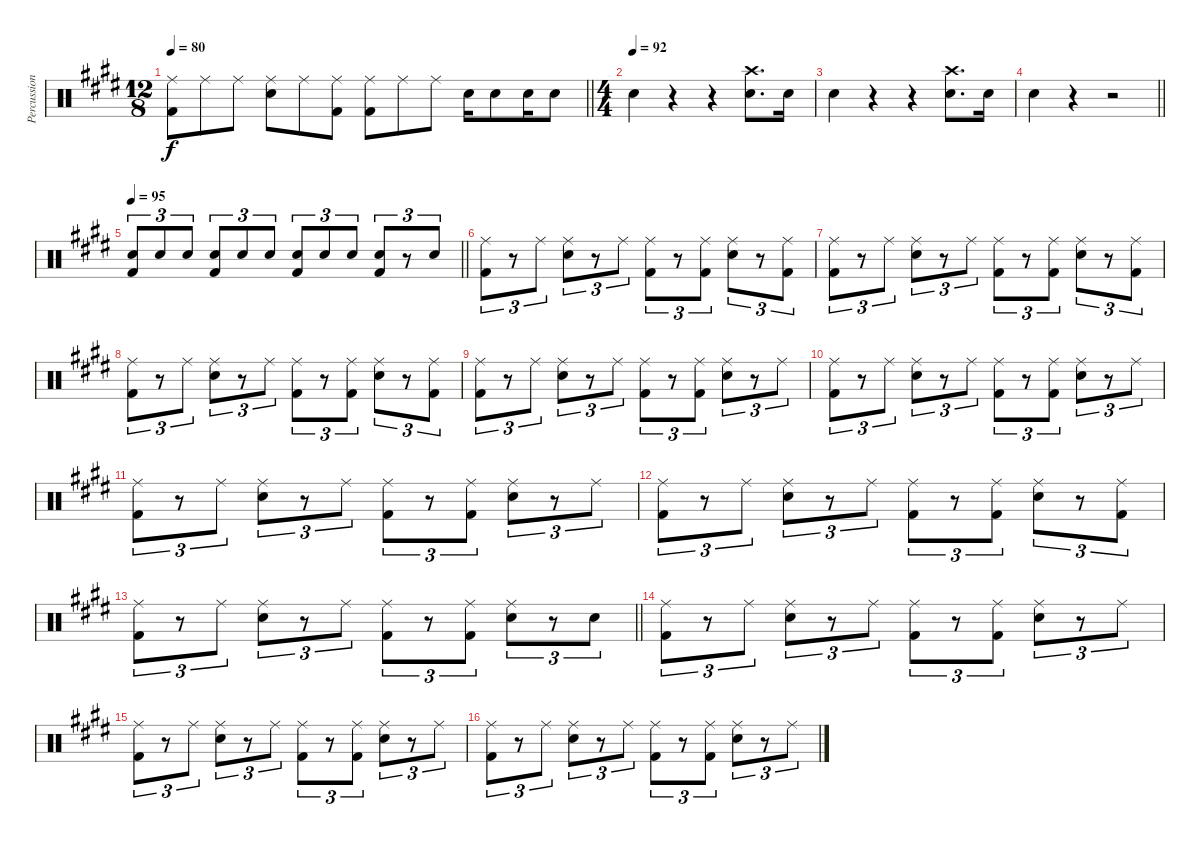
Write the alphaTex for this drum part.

\track ("Percussion" "Percussion") {instrument percussion}
\staff {score}
\articulation defaults
\ts (12 8)
\tempo 80
\clef neutral
\barLineRight lightlight
\ks e
("Ride (middle)" "Kick (hit) 2").8{dy f} "Ride (middle)".8 "Ride (middle)".8 ("Ride (middle)" "Snare (hit) 2").8 "Ride (middle)".8 ("Ride (middle)" "Kick (hit) 2").8 ("Ride (middle)" "Kick (hit) 2").8 "Ride (middle)".8 "Ride (middle)".8 "Snare (hit) 2".16 "Snare (hit) 2".8 "Snare (hit) 2".16 "Snare (hit) 2".8 |
\ts (4 4)
\tempo (92)
"Snare (hit) 2".4 r.4 r.4 ("Crash high (hit)" "Snare (hit) 2").8{d} "Snare (hit) 2".16 |
"Snare (hit) 2".4 r.4 r.4 ("Crash high (hit)" "Snare (hit) 2").8{d} "Snare (hit) 2".16 |
\barLineRight lightlight "Snare (hit) 2".4
r.4 r.2 |
\tempo 95
\barLineRight lightlight
("Snare (hit) 2" "Kick (hit) 2").8{tu (3 2)} "Snare (hit) 2".8{tu (3 2)} "Snare (hit) 2".8{tu (3 2)} ("Snare (hit) 2" "Kick (hit) 2").8{tu (3 2)} "Snare (hit) 2".8{tu (3 2)} "Snare (hit) 2".8{tu (3 2)} ("Snare (hit) 2" "Kick (hit) 2").8{tu (3 2)} "Snare (hit) 2".8{tu (3 2)} "Snare (hit) 2".8{tu (3 2)} ("Snare (hit) 2" "Kick (hit) 2").8{tu (3 2)} r.8{tu (3 2)} "Snare (hit) 2".8{tu (3 2)} |
("Ride (middle)" "Kick (hit) 2").8{tu (3 2)} r.8{tu (3 2)} "Ride (middle)".8{tu (3 2)} ("Ride (middle)" "Snare (hit) 2").8{tu (3 2)} r.8{tu (3 2)} "Ride (middle)".8{tu (3 2)} ("Ride (middle)" "Kick (hit) 2").8{tu (3 2)} r.8{tu (3 2)} ("Ride (middle)" "Kick (hit) 2").8{tu (3 2)} ("Ride (middle)" "Snare (hit) 2").8{tu (3 2)} r.8{tu (3 2)} ("Ride (middle)" "Kick (hit) 2").8{tu (3 2)} |
("Ride (middle)" "Kick (hit) 2").8{tu (3 2)} r.8{tu (3 2)} "Ride (middle)".8{tu (3 2)} ("Ride (middle)" "Snare (hit) 2").8{tu (3 2)} r.8{tu (3 2)} "Ride (middle)".8{tu (3 2)} ("Ride (middle)" "Kick (hit) 2").8{tu (3 2)} r.8{tu (3 2)} ("Ride (middle)" "Kick (hit) 2").8{tu (3 2)} ("Ride (middle)" "Snare (hit) 2").8{tu (3 2)} r.8{tu (3 2)} ("Ride (middle)" "Kick (hit) 2").8{tu (3 2)} |
("Ride (middle)" "Kick (hit) 2").8{tu (3 2)} r.8{tu (3 2)} "Ride (middle)".8{tu (3 2)} ("Ride (middle)" "Snare (hit) 2").8{tu (3 2)} r.8{tu (3 2)} "Ride (middle)".8{tu (3 2)} ("Ride (middle)" "Kick (hit) 2").8{tu (3 2)} r.8{tu (3 2)} ("Ride (middle)" "Kick (hit) 2").8{tu (3 2)} ("Ride (middle)" "Snare (hit) 2").8{tu (3 2)} r.8{tu (3 2)} ("Ride (middle)" "Kick (hit) 2").8{tu (3 2)} |
("Ride (middle)" "Kick (hit) 2").8{tu (3 2)} r.8{tu (3 2)} "Ride (middle)".8{tu (3 2)} ("Ride (middle)" "Snare (hit) 2").8{tu (3 2)} r.8{tu (3 2)} "Ride (middle)".8{tu (3 2)} ("Ride (middle)" "Kick (hit) 2").8{tu (3 2)} r.8{tu (3 2)} ("Ride (middle)" "Kick (hit) 2").8{tu (3 2)} ("Ride (middle)" "Snare (hit) 2").8{tu (3 2)} r.8{tu (3 2)} "Ride (middle)".8{tu (3 2)} |
("Ride (middle)" "Kick (hit) 2").8{tu (3 2)} r.8{tu (3 2)} "Ride (middle)".8{tu (3 2)} ("Ride (middle)" "Snare (hit) 2").8{tu (3 2)} r.8{tu (3 2)} "Ride (middle)".8{tu (3 2)} ("Ride (middle)" "Kick (hit) 2").8{tu (3 2)} r.8{tu (3 2)} ("Ride (middle)" "Kick (hit) 2").8{tu (3 2)} ("Ride (middle)" "Snare (hit) 2").8{tu (3 2)} r.8{tu (3 2)} "Ride (middle)".8{tu (3 2)} |
("Ride (middle)" "Kick (hit) 2").8{tu (3 2)} r.8{tu (3 2)} "Ride (middle)".8{tu (3 2)} ("Ride (middle)" "Snare (hit) 2").8{tu (3 2)} r.8{tu (3 2)} "Ride (middle)".8{tu (3 2)} ("Ride (middle)" "Kick (hit) 2").8{tu (3 2)} r.8{tu (3 2)} ("Ride (middle)" "Kick (hit) 2").8{tu (3 2)} ("Ride (middle)" "Snare (hit) 2").8{tu (3 2)} r.8{tu (3 2)} "Ride (middle)".8{tu (3 2)} |
("Ride (middle)" "Kick (hit) 2").8{tu (3 2)} r.8{tu (3 2)} "Ride (middle)".8{tu (3 2)} ("Ride (middle)" "Snare (hit) 2").8{tu (3 2)} r.8{tu (3 2)} "Ride (middle)".8{tu (3 2)} ("Ride (middle)" "Kick (hit) 2").8{tu (3 2)} r.8{tu (3 2)} ("Ride (middle)" "Kick (hit) 2").8{tu (3 2)} ("Ride (middle)" "Snare (hit) 2").8{tu (3 2)} r.8{tu (3 2)} ("Ride (middle)" "Kick (hit) 2").8{tu (3 2)} |
\barLineRight lightlight
("Ride (middle)" "Kick (hit) 2").8{tu (3 2)} r.8{tu (3 2)} "Ride (middle)".8{tu (3 2)} ("Ride (middle)" "Snare (hit) 2").8{tu (3 2)} r.8{tu (3 2)} "Ride (middle)".8{tu (3 2)} ("Ride (middle)" "Kick (hit) 2").8{tu (3 2)} r.8{tu (3 2)} ("Ride (middle)" "Kick (hit) 2").8{tu (3 2)} ("Ride (middle)" "Snare (hit) 2").8{tu (3 2)} r.8{tu (3 2)} "Snare (hit) 2".8{tu (3 2)} |
("Ride (middle)" "Kick (hit) 2").8{tu (3 2)} r.8{tu (3 2)} "Ride (middle)".8{tu (3 2)} ("Ride (middle)" "Snare (hit) 2").8{tu (3 2)} r.8{tu (3 2)} "Ride (middle)".8{tu (3 2)} ("Ride (middle)" "Kick (hit) 2").8{tu (3 2)} r.8{tu (3 2)} ("Ride (middle)" "Kick (hit) 2").8{tu (3 2)} ("Ride (middle)" "Snare (hit) 2").8{tu (3 2)} r.8{tu (3 2)} "Ride (middle)".8{tu (3 2)} |
("Ride (middle)" "Kick (hit) 2").8{tu (3 2)} r.8{tu (3 2)} "Ride (middle)".8{tu (3 2)} ("Ride (middle)" "Snare (hit) 2").8{tu (3 2)} r.8{tu (3 2)} "Ride (middle)".8{tu (3 2)} ("Ride (middle)" "Kick (hit) 2").8{tu (3 2)} r.8{tu (3 2)} ("Ride (middle)" "Kick (hit) 2").8{tu (3 2)} ("Ride (middle)" "Snare (hit) 2").8{tu (3 2)} r.8{tu (3 2)} "Ride (middle)".8{tu (3 2)} |
("Ride (middle)" "Kick (hit) 2").8{tu (3 2)} r.8{tu (3 2)} "Ride (middle)".8{tu (3 2)} ("Ride (middle)" "Snare (hit) 2").8{tu (3 2)} r.8{tu (3 2)} "Ride (middle)".8{tu (3 2)} ("Ride (middle)" "Kick (hit) 2").8{tu (3 2)} r.8{tu (3 2)} ("Ride (middle)" "Kick (hit) 2").8{tu (3 2)} ("Ride (middle)" "Snare (hit) 2").8{tu (3 2)} r.8{tu (3 2)} "Ride (middle)".8{tu (3 2)}
